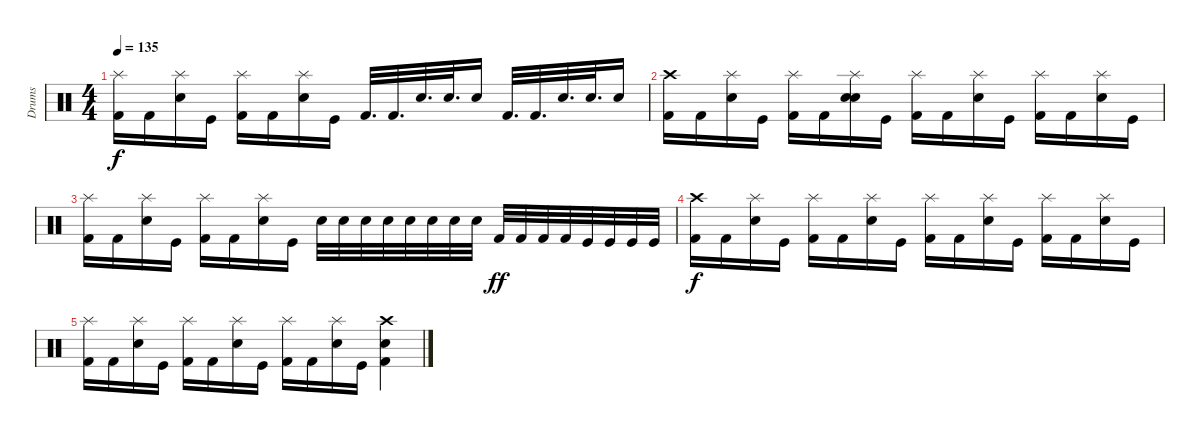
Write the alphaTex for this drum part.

\track ("Drums" "Drums") {instrument percussion}
\staff {score}
\articulation defaults
\ts (4 4)
\tempo 135
\clef neutral
\ks c
("Splash (hit)" "Kick (hit) 2").16{dy f} "Kick (hit) 2".16 ("Splash (hit)" "Electric Snare (hit)").16 "Kick (hit)".16 ("Splash (hit)" "Kick (hit) 2").16 "Kick (hit) 2".16 ("Splash (hit)" "Electric Snare (hit)").16 "Kick (hit)".16 "Kick (hit) 2".32{d} "Kick (hit) 2".32{d} "Electric Snare (hit)".32{d} "Electric Snare (hit)".32{d} "Snare (hit) 2".16 "Kick (hit) 2".32{d} "Kick (hit) 2".32{d} "Electric Snare (hit)".32{d} "Electric Snare (hit)".32{d} "Snare (hit) 2".16 |
("Crash high (hit)" "Kick (hit) 2").16 "Kick (hit) 2".16 ("Splash (hit)" "Electric Snare (hit)").16 "Kick (hit)".16 ("Splash (hit)" "Kick (hit) 2").16 "Kick (hit) 2".16 ("Splash (hit)" "Electric Snare (hit)" "Electric Snare (hit)").16 "Kick (hit)".16 ("Splash (hit)" "Kick (hit) 2").16 "Kick (hit) 2".16 ("Splash (hit)" "Electric Snare (hit)").16 "Kick (hit)".16 ("Splash (hit)" "Kick (hit) 2").16 "Kick (hit) 2".16 ("Splash (hit)" "Electric Snare (hit)").16 "Kick (hit)".16 |
("Splash (hit)" "Kick (hit) 2").16 "Kick (hit) 2".16 ("Splash (hit)" "Electric Snare (hit)").16 "Kick (hit)".16 ("Splash (hit)" "Kick (hit) 2").16 "Kick (hit) 2".16 ("Splash (hit)" "Electric Snare (hit)").16 "Kick (hit)".16 "Electric Snare (hit)".32 "Electric Snare (hit)".32 "Electric Snare (hit)".32 "Electric Snare (hit)".32 "Snare (hit) 2".32 "Snare (hit) 2".32 "Snare (hit) 2".32 "Snare (hit) 2".32 "Kick (hit) 2".32{dy ff} "Kick (hit) 2".32 "Kick (hit) 2".32 "Kick (hit) 2".32 "Kick (hit)".32 "Kick (hit)".32 "Kick (hit)".32 "Kick (hit)".32 |
("Crash high (hit)" "Kick (hit) 2").16{dy f} "Kick (hit) 2".16 ("Splash (hit)" "Electric Snare (hit)").16 "Kick (hit)".16 ("Splash (hit)" "Kick (hit) 2").16 "Kick (hit) 2".16 ("Splash (hit)" "Electric Snare (hit)").16 "Kick (hit)".16 ("Splash (hit)" "Kick (hit) 2").16 "Kick (hit) 2".16 ("Splash (hit)" "Electric Snare (hit)").16 "Kick (hit)".16 ("Splash (hit)" "Kick (hit) 2").16 "Kick (hit) 2".16 ("Splash (hit)" "Electric Snare (hit)").16 "Kick (hit)".16 |
("Splash (hit)" "Kick (hit) 2").16 "Kick (hit) 2".16 ("Splash (hit)" "Electric Snare (hit)").16 "Kick (hit)".16 ("Splash (hit)" "Kick (hit) 2").16 "Kick (hit) 2".16 ("Splash (hit)" "Electric Snare (hit)").16 "Kick (hit)".16 ("Splash (hit)" "Kick (hit) 2").16 "Kick (hit) 2".16 ("Splash (hit)" "Electric Snare (hit)").16 "Kick (hit)".16 ("Crash high (hit)" "Electric Snare (hit)" "Kick (hit) 2").4
